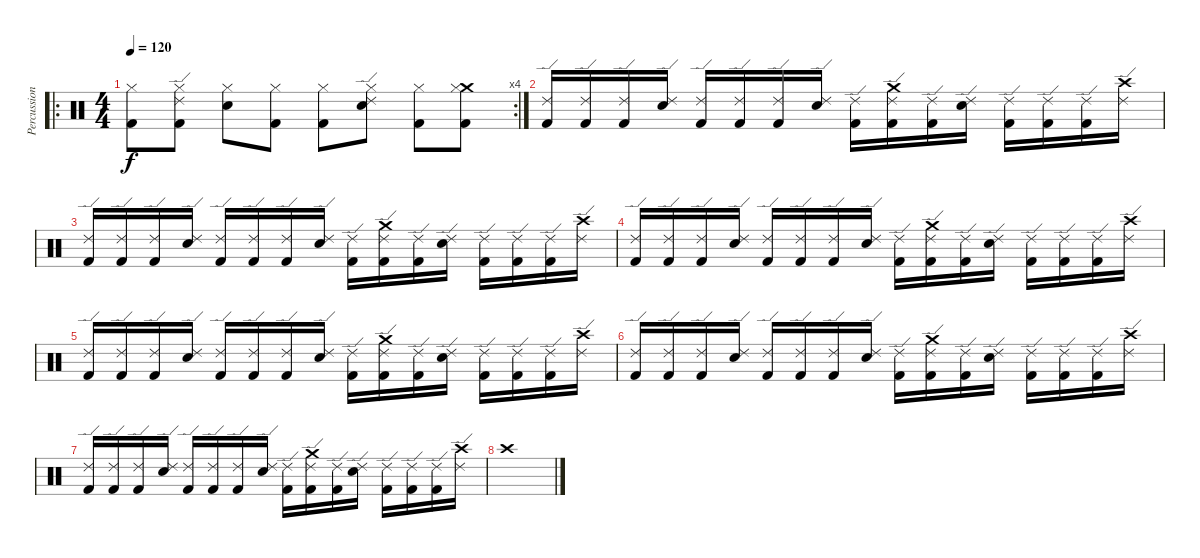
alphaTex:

\track ("Percussion" "Percussion") {instrument percussion}
\staff {score}
\articulation defaults
\ro
\rc 4
\ts (4 4)
\tempo 120
\clef neutral
\ks c
("Hi-Hat (closed)" "Kick (hit) 2").8{dy f} ("Ride (edge) 2" "Hi-Hat (closed)" "Kick (hit) 2").8 ("Hi-Hat (closed)" "Electric Snare (hit)").8 ("Hi-Hat (closed)" "Kick (hit) 2").8 ("Hi-Hat (closed)" "Kick (hit) 2").8 ("Ride (edge) 2" "Hi-Hat (closed)" "Electric Snare (hit)").8 ("Hi-Hat (closed)" "Kick (hit) 2").8 ("Crash medium (hit)" "Hi-Hat (closed)" "Kick (hit) 2").8 |
("Ride (edge) 2" "Kick (hit) 2").16 ("Ride (edge) 2" "Kick (hit) 2").16 ("Ride (edge) 2" "Kick (hit) 2").16 ("Electric Snare (hit)" "Ride (edge) 2").16 ("Ride (edge) 2" "Kick (hit) 2").16 ("Ride (edge) 2" "Kick (hit) 2").16 ("Ride (edge) 2" "Kick (hit) 2").16 ("Electric Snare (hit)" "Ride (edge) 2").16 ("Ride (edge) 2" "Kick (hit) 2").16 ("Crash medium (hit)" "Ride (edge) 2" "Kick (hit) 2").16 ("Ride (edge) 2" "Kick (hit) 2").16 ("Electric Snare (hit)" "Ride (edge) 2").16 ("Ride (edge) 2" "Kick (hit) 2").16 ("Ride (edge) 2" "Kick (hit) 2").16 ("Ride (edge) 2" "Kick (hit) 2").16 ("Crash high (hit)" "Ride (edge) 2").16 |
("Ride (edge) 2" "Kick (hit) 2").16 ("Ride (edge) 2" "Kick (hit) 2").16 ("Ride (edge) 2" "Kick (hit) 2").16 ("Electric Snare (hit)" "Ride (edge) 2").16 ("Ride (edge) 2" "Kick (hit) 2").16 ("Ride (edge) 2" "Kick (hit) 2").16 ("Ride (edge) 2" "Kick (hit) 2").16 ("Electric Snare (hit)" "Ride (edge) 2").16 ("Ride (edge) 2" "Kick (hit) 2").16 ("Crash medium (hit)" "Ride (edge) 2" "Kick (hit) 2").16 ("Ride (edge) 2" "Kick (hit) 2").16 ("Electric Snare (hit)" "Ride (edge) 2").16 ("Ride (edge) 2" "Kick (hit) 2").16 ("Ride (edge) 2" "Kick (hit) 2").16 ("Ride (edge) 2" "Kick (hit) 2").16 ("Crash high (hit)" "Ride (edge) 2").16 |
("Ride (edge) 2" "Kick (hit) 2").16 ("Ride (edge) 2" "Kick (hit) 2").16 ("Ride (edge) 2" "Kick (hit) 2").16 ("Electric Snare (hit)" "Ride (edge) 2").16 ("Ride (edge) 2" "Kick (hit) 2").16 ("Ride (edge) 2" "Kick (hit) 2").16 ("Ride (edge) 2" "Kick (hit) 2").16 ("Electric Snare (hit)" "Ride (edge) 2").16 ("Ride (edge) 2" "Kick (hit) 2").16 ("Crash medium (hit)" "Ride (edge) 2" "Kick (hit) 2").16 ("Ride (edge) 2" "Kick (hit) 2").16 ("Electric Snare (hit)" "Ride (edge) 2").16 ("Ride (edge) 2" "Kick (hit) 2").16 ("Ride (edge) 2" "Kick (hit) 2").16 ("Ride (edge) 2" "Kick (hit) 2").16 ("Crash high (hit)" "Ride (edge) 2").16 |
("Ride (edge) 2" "Kick (hit) 2").16 ("Ride (edge) 2" "Kick (hit) 2").16 ("Ride (edge) 2" "Kick (hit) 2").16 ("Electric Snare (hit)" "Ride (edge) 2").16 ("Ride (edge) 2" "Kick (hit) 2").16 ("Ride (edge) 2" "Kick (hit) 2").16 ("Ride (edge) 2" "Kick (hit) 2").16 ("Electric Snare (hit)" "Ride (edge) 2").16 ("Ride (edge) 2" "Kick (hit) 2").16 ("Crash medium (hit)" "Ride (edge) 2" "Kick (hit) 2").16 ("Ride (edge) 2" "Kick (hit) 2").16 ("Electric Snare (hit)" "Ride (edge) 2").16 ("Ride (edge) 2" "Kick (hit) 2").16 ("Ride (edge) 2" "Kick (hit) 2").16 ("Ride (edge) 2" "Kick (hit) 2").16 ("Crash high (hit)" "Ride (edge) 2").16 |
("Ride (edge) 2" "Kick (hit) 2").16 ("Ride (edge) 2" "Kick (hit) 2").16 ("Ride (edge) 2" "Kick (hit) 2").16 ("Electric Snare (hit)" "Ride (edge) 2").16 ("Ride (edge) 2" "Kick (hit) 2").16 ("Ride (edge) 2" "Kick (hit) 2").16 ("Ride (edge) 2" "Kick (hit) 2").16 ("Electric Snare (hit)" "Ride (edge) 2").16 ("Ride (edge) 2" "Kick (hit) 2").16 ("Crash medium (hit)" "Ride (edge) 2" "Kick (hit) 2").16 ("Ride (edge) 2" "Kick (hit) 2").16 ("Electric Snare (hit)" "Ride (edge) 2").16 ("Ride (edge) 2" "Kick (hit) 2").16 ("Ride (edge) 2" "Kick (hit) 2").16 ("Ride (edge) 2" "Kick (hit) 2").16 ("Crash high (hit)" "Ride (edge) 2").16 |
("Ride (edge) 2" "Kick (hit) 2").16 ("Ride (edge) 2" "Kick (hit) 2").16 ("Ride (edge) 2" "Kick (hit) 2").16 ("Electric Snare (hit)" "Ride (edge) 2").16 ("Ride (edge) 2" "Kick (hit) 2").16 ("Ride (edge) 2" "Kick (hit) 2").16 ("Ride (edge) 2" "Kick (hit) 2").16 ("Electric Snare (hit)" "Ride (edge) 2").16 ("Ride (edge) 2" "Kick (hit) 2").16 ("Crash medium (hit)" "Ride (edge) 2" "Kick (hit) 2").16 ("Ride (edge) 2" "Kick (hit) 2").16 ("Electric Snare (hit)" "Ride (edge) 2").16 ("Ride (edge) 2" "Kick (hit) 2").16 ("Ride (edge) 2" "Kick (hit) 2").16 ("Ride (edge) 2" "Kick (hit) 2").16 ("Crash high (hit)" "Ride (edge) 2").16 |
"Crash high (hit)".1
